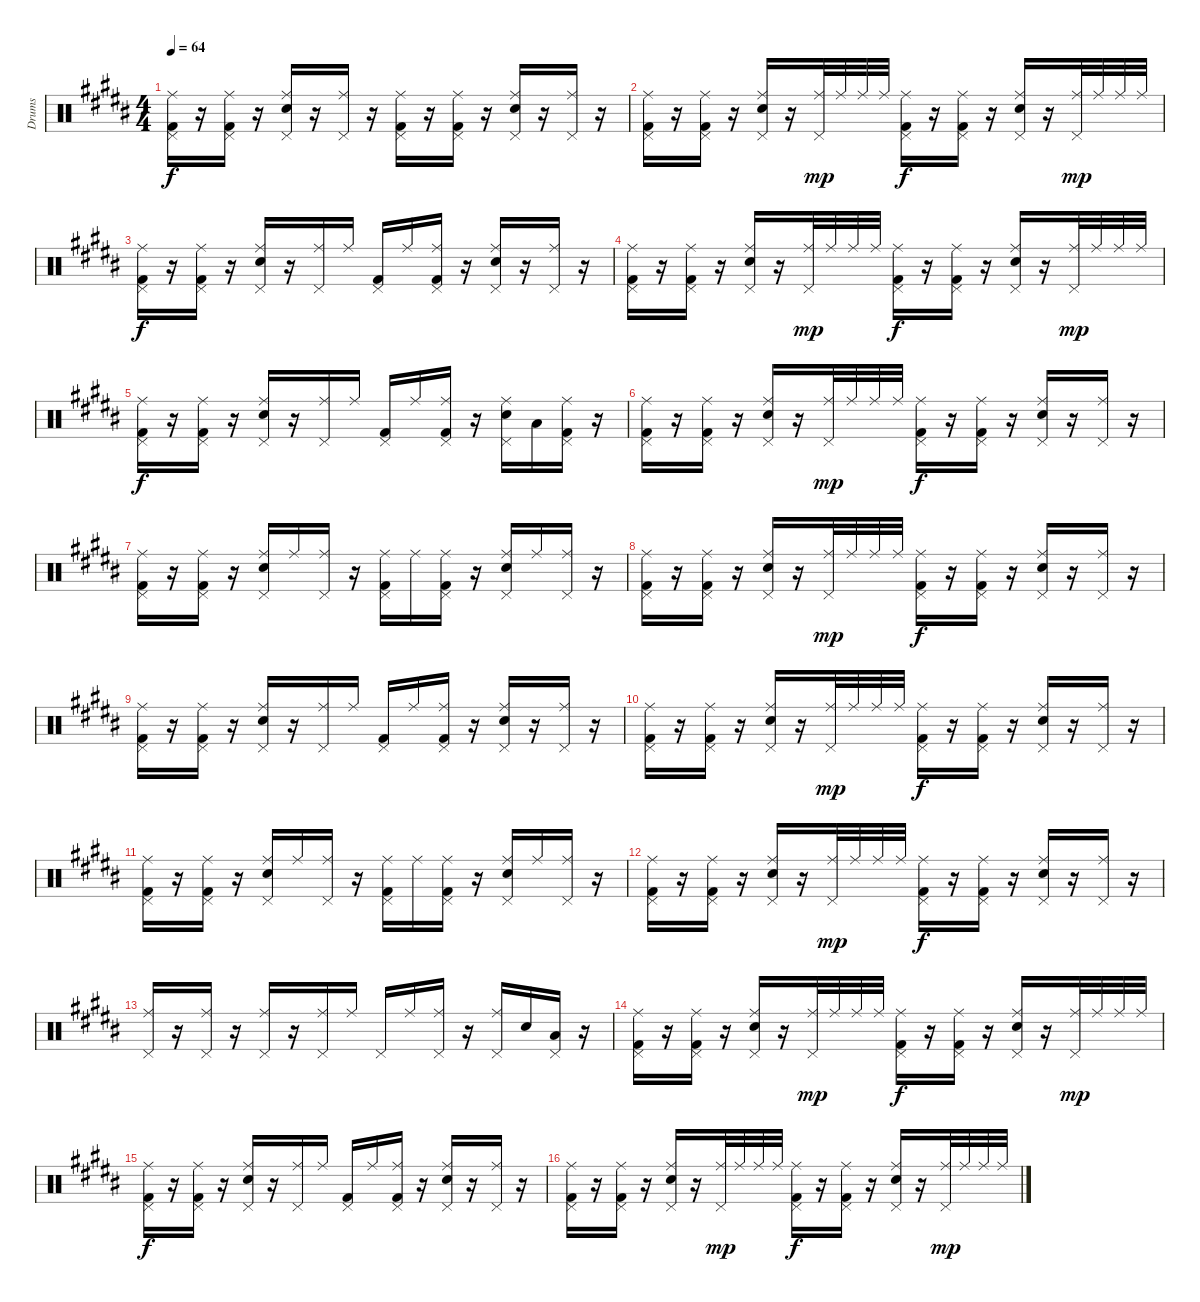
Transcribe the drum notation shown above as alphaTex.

\track ("Drums" "Drums") {instrument percussion}
\staff {score}
\articulation defaults
\ts (4 4)
\tempo 64
\clef neutral
\ks b
("Ride (middle)" "Pedal Hi-Hat (hit)" "Kick (hit) 2").16{dy f} r.16 ("Ride (middle)" "Pedal Hi-Hat (hit)" "Kick (hit) 2").16 r.16 ("Ride (middle)" "Pedal Hi-Hat (hit)" "Snare (hit) 2").16 r.16 ("Ride (middle)" "Pedal Hi-Hat (hit)").16 r.16 ("Ride (middle)" "Pedal Hi-Hat (hit)" "Kick (hit) 2").16 r.16 ("Ride (middle)" "Pedal Hi-Hat (hit)" "Kick (hit) 2").16 r.16 ("Ride (middle)" "Pedal Hi-Hat (hit)" "Snare (hit) 2").16 r.16 ("Ride (middle)" "Pedal Hi-Hat (hit)").16 r.16 |
("Ride (middle)" "Pedal Hi-Hat (hit)" "Kick (hit) 2").16 r.16 ("Ride (middle)" "Pedal Hi-Hat (hit)" "Kick (hit) 2").16 r.16 ("Ride (middle)" "Pedal Hi-Hat (hit)" "Snare (hit) 2").16 r.16 ("Ride (middle)" "Pedal Hi-Hat (hit)").32{dy mp} "Ride (middle)".32 "Ride (middle)".32 "Ride (middle)".32 ("Ride (middle)" "Pedal Hi-Hat (hit)" "Kick (hit) 2").16{dy f} r.16 ("Ride (middle)" "Pedal Hi-Hat (hit)" "Kick (hit) 2").16 r.16 ("Ride (middle)" "Pedal Hi-Hat (hit)" "Snare (hit) 2").16 r.16 ("Ride (middle)" "Pedal Hi-Hat (hit)").32{dy mp} "Ride (middle)".32 "Ride (middle)".32 "Ride (middle)".32 |
("Ride (middle)" "Pedal Hi-Hat (hit)" "Kick (hit) 2").16{dy f} r.16 ("Ride (middle)" "Pedal Hi-Hat (hit)" "Kick (hit) 2").16 r.16 ("Ride (middle)" "Pedal Hi-Hat (hit)" "Snare (hit) 2").16 r.16 ("Ride (middle)" "Pedal Hi-Hat (hit)").16 "Ride (middle)".16 ("Pedal Hi-Hat (hit)" "Kick (hit) 2").16 "Ride (middle)".16 ("Ride (middle)" "Pedal Hi-Hat (hit)" "Kick (hit) 2").16 r.16 ("Ride (middle)" "Pedal Hi-Hat (hit)" "Snare (hit) 2").16 r.16 ("Ride (middle)" "Pedal Hi-Hat (hit)").16 r.16 |
("Ride (middle)" "Pedal Hi-Hat (hit)" "Kick (hit) 2").16 r.16 ("Ride (middle)" "Pedal Hi-Hat (hit)" "Kick (hit) 2").16 r.16 ("Ride (middle)" "Pedal Hi-Hat (hit)" "Snare (hit) 2").16 r.16 ("Ride (middle)" "Pedal Hi-Hat (hit)").32{dy mp} "Ride (middle)".32 "Ride (middle)".32 "Ride (middle)".32 ("Ride (middle)" "Pedal Hi-Hat (hit)" "Kick (hit) 2").16{dy f} r.16 ("Ride (middle)" "Pedal Hi-Hat (hit)" "Kick (hit) 2").16 r.16 ("Ride (middle)" "Pedal Hi-Hat (hit)" "Snare (hit) 2").16 r.16 ("Ride (middle)" "Pedal Hi-Hat (hit)").32{dy mp} "Ride (middle)".32 "Ride (middle)".32 "Ride (middle)".32 |
("Ride (middle)" "Pedal Hi-Hat (hit)" "Kick (hit) 2").16{dy f} r.16 ("Ride (middle)" "Pedal Hi-Hat (hit)" "Kick (hit) 2").16 r.16 ("Ride (middle)" "Pedal Hi-Hat (hit)" "Snare (hit) 2").16 r.16 ("Ride (middle)" "Pedal Hi-Hat (hit)").16 "Ride (middle)".16 ("Pedal Hi-Hat (hit)" "Kick (hit) 2").16 "Ride (middle)".16 ("Ride (middle)" "Pedal Hi-Hat (hit)" "Kick (hit) 2").16 r.16 ("Ride (middle)" "Pedal Hi-Hat (hit)" "Snare (hit) 2").16 "Low Tom (hit)".16 ("Ride (middle)" "Pedal Hi-Hat (hit)" "Kick (hit) 2").16 r.16 |
("Ride (middle)" "Pedal Hi-Hat (hit)" "Kick (hit) 2").16 r.16 ("Ride (middle)" "Pedal Hi-Hat (hit)" "Kick (hit) 2").16 r.16 ("Ride (middle)" "Pedal Hi-Hat (hit)" "Snare (hit) 2").16 r.16 ("Ride (middle)" "Pedal Hi-Hat (hit)").32{dy mp} "Ride (middle)".32 "Ride (middle)".32 "Ride (middle)".32 ("Ride (middle)" "Pedal Hi-Hat (hit)" "Kick (hit) 2").16{dy f} r.16 ("Ride (middle)" "Pedal Hi-Hat (hit)" "Kick (hit) 2").16 r.16 ("Ride (middle)" "Pedal Hi-Hat (hit)" "Snare (hit) 2").16 r.16 ("Ride (middle)" "Pedal Hi-Hat (hit)").16 r.16 |
("Ride (middle)" "Pedal Hi-Hat (hit)" "Kick (hit) 2").16 r.16 ("Ride (middle)" "Pedal Hi-Hat (hit)" "Kick (hit) 2").16 r.16 ("Ride (middle)" "Pedal Hi-Hat (hit)" "Snare (hit) 2").16 "Ride (middle)".16 ("Ride (middle)" "Pedal Hi-Hat (hit)").16 r.16 ("Ride (middle)" "Pedal Hi-Hat (hit)" "Kick (hit) 2").16 "Ride (middle)".16 ("Ride (middle)" "Pedal Hi-Hat (hit)" "Kick (hit) 2").16 r.16 ("Ride (middle)" "Pedal Hi-Hat (hit)" "Snare (hit) 2").16 "Ride (middle)".16 ("Ride (middle)" "Pedal Hi-Hat (hit)").16 r.16 |
("Ride (middle)" "Pedal Hi-Hat (hit)" "Kick (hit) 2").16 r.16 ("Ride (middle)" "Pedal Hi-Hat (hit)" "Kick (hit) 2").16 r.16 ("Ride (middle)" "Pedal Hi-Hat (hit)" "Snare (hit) 2").16 r.16 ("Ride (middle)" "Pedal Hi-Hat (hit)").32{dy mp} "Ride (middle)".32 "Ride (middle)".32 "Ride (middle)".32 ("Ride (middle)" "Pedal Hi-Hat (hit)" "Kick (hit) 2").16{dy f} r.16 ("Ride (middle)" "Pedal Hi-Hat (hit)" "Kick (hit) 2").16 r.16 ("Ride (middle)" "Pedal Hi-Hat (hit)" "Snare (hit) 2").16 r.16 ("Ride (middle)" "Pedal Hi-Hat (hit)").16 r.16 |
("Ride (middle)" "Pedal Hi-Hat (hit)" "Kick (hit) 2").16 r.16 ("Ride (middle)" "Pedal Hi-Hat (hit)" "Kick (hit) 2").16 r.16 ("Ride (middle)" "Pedal Hi-Hat (hit)" "Snare (hit) 2").16 r.16 ("Ride (middle)" "Pedal Hi-Hat (hit)").16 "Ride (middle)".16 ("Pedal Hi-Hat (hit)" "Kick (hit) 2").16 "Ride (middle)".16 ("Ride (middle)" "Pedal Hi-Hat (hit)" "Kick (hit) 2").16 r.16 ("Ride (middle)" "Pedal Hi-Hat (hit)" "Snare (hit) 2").16 r.16 ("Ride (middle)" "Pedal Hi-Hat (hit)").16 r.16 |
("Ride (middle)" "Pedal Hi-Hat (hit)" "Kick (hit) 2").16 r.16 ("Ride (middle)" "Pedal Hi-Hat (hit)" "Kick (hit) 2").16 r.16 ("Ride (middle)" "Pedal Hi-Hat (hit)" "Snare (hit) 2").16 r.16 ("Ride (middle)" "Pedal Hi-Hat (hit)").32{dy mp} "Ride (middle)".32 "Ride (middle)".32 "Ride (middle)".32 ("Ride (middle)" "Pedal Hi-Hat (hit)" "Kick (hit) 2").16{dy f} r.16 ("Ride (middle)" "Pedal Hi-Hat (hit)" "Kick (hit) 2").16 r.16 ("Ride (middle)" "Pedal Hi-Hat (hit)" "Snare (hit) 2").16 r.16 ("Ride (middle)" "Pedal Hi-Hat (hit)").16 r.16 |
("Ride (middle)" "Pedal Hi-Hat (hit)" "Kick (hit) 2").16 r.16 ("Ride (middle)" "Pedal Hi-Hat (hit)" "Kick (hit) 2").16 r.16 ("Ride (middle)" "Pedal Hi-Hat (hit)" "Snare (hit) 2").16 "Ride (middle)".16 ("Ride (middle)" "Pedal Hi-Hat (hit)").16 r.16 ("Ride (middle)" "Pedal Hi-Hat (hit)" "Kick (hit) 2").16 "Ride (middle)".16 ("Ride (middle)" "Pedal Hi-Hat (hit)" "Kick (hit) 2").16 r.16 ("Ride (middle)" "Pedal Hi-Hat (hit)" "Snare (hit) 2").16 "Ride (middle)".16 ("Ride (middle)" "Pedal Hi-Hat (hit)").16 r.16 |
("Ride (middle)" "Pedal Hi-Hat (hit)" "Kick (hit) 2").16 r.16 ("Ride (middle)" "Pedal Hi-Hat (hit)" "Kick (hit) 2").16 r.16 ("Ride (middle)" "Pedal Hi-Hat (hit)" "Snare (hit) 2").16 r.16 ("Ride (middle)" "Pedal Hi-Hat (hit)").32{dy mp} "Ride (middle)".32 "Ride (middle)".32 "Ride (middle)".32 ("Ride (middle)" "Pedal Hi-Hat (hit)" "Kick (hit) 2").16{dy f} r.16 ("Ride (middle)" "Pedal Hi-Hat (hit)" "Kick (hit) 2").16 r.16 ("Ride (middle)" "Pedal Hi-Hat (hit)" "Snare (hit) 2").16 r.16 ("Ride (middle)" "Pedal Hi-Hat (hit)").16 r.16 |
("Ride (middle)" "Pedal Hi-Hat (hit)").16 r.16 ("Ride (middle)" "Pedal Hi-Hat (hit)").16 r.16 ("Ride (middle)" "Pedal Hi-Hat (hit)").16 r.16 ("Ride (middle)" "Pedal Hi-Hat (hit)").16 "Ride (middle)".16 "Pedal Hi-Hat (hit)".16 "Ride (middle)".16 ("Ride (middle)" "Pedal Hi-Hat (hit)").16 r.16 ("Ride (middle)" "Pedal Hi-Hat (hit)").16 "Snare (hit) 2".16 ("Pedal Hi-Hat (hit)" "Low Tom (hit)").16 r.16 |
("Ride (middle)" "Pedal Hi-Hat (hit)" "Kick (hit) 2").16 r.16 ("Ride (middle)" "Pedal Hi-Hat (hit)" "Kick (hit) 2").16 r.16 ("Ride (middle)" "Pedal Hi-Hat (hit)" "Snare (hit) 2").16 r.16 ("Ride (middle)" "Pedal Hi-Hat (hit)").32{dy mp} "Ride (middle)".32 "Ride (middle)".32 "Ride (middle)".32 ("Ride (middle)" "Pedal Hi-Hat (hit)" "Kick (hit) 2").16{dy f} r.16 ("Ride (middle)" "Pedal Hi-Hat (hit)" "Kick (hit) 2").16 r.16 ("Ride (middle)" "Pedal Hi-Hat (hit)" "Snare (hit) 2").16 r.16 ("Ride (middle)" "Pedal Hi-Hat (hit)").32{dy mp} "Ride (middle)".32 "Ride (middle)".32 "Ride (middle)".32 |
("Ride (middle)" "Pedal Hi-Hat (hit)" "Kick (hit) 2").16{dy f} r.16 ("Ride (middle)" "Pedal Hi-Hat (hit)" "Kick (hit) 2").16 r.16 ("Ride (middle)" "Pedal Hi-Hat (hit)" "Snare (hit) 2").16 r.16 ("Ride (middle)" "Pedal Hi-Hat (hit)").16 "Ride (middle)".16 ("Pedal Hi-Hat (hit)" "Kick (hit) 2").16 "Ride (middle)".16 ("Ride (middle)" "Pedal Hi-Hat (hit)" "Kick (hit) 2").16 r.16 ("Ride (middle)" "Pedal Hi-Hat (hit)" "Snare (hit) 2").16 r.16 ("Ride (middle)" "Pedal Hi-Hat (hit)").16 r.16 |
("Ride (middle)" "Pedal Hi-Hat (hit)" "Kick (hit) 2").16 r.16 ("Ride (middle)" "Pedal Hi-Hat (hit)" "Kick (hit) 2").16 r.16 ("Ride (middle)" "Pedal Hi-Hat (hit)" "Snare (hit) 2").16 r.16 ("Ride (middle)" "Pedal Hi-Hat (hit)").32{dy mp} "Ride (middle)".32 "Ride (middle)".32 "Ride (middle)".32 ("Ride (middle)" "Pedal Hi-Hat (hit)" "Kick (hit) 2").16{dy f} r.16 ("Ride (middle)" "Pedal Hi-Hat (hit)" "Kick (hit) 2").16 r.16 ("Ride (middle)" "Pedal Hi-Hat (hit)" "Snare (hit) 2").16 r.16 ("Ride (middle)" "Pedal Hi-Hat (hit)").32{dy mp} "Ride (middle)".32 "Ride (middle)".32 "Ride (middle)".32
